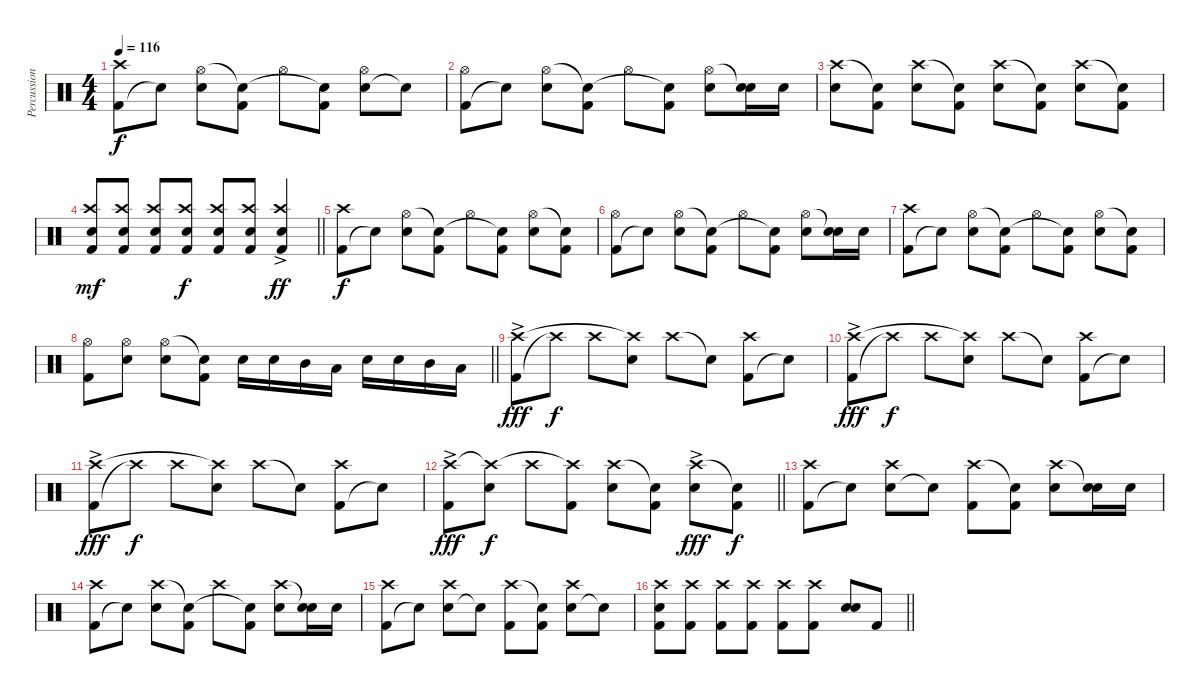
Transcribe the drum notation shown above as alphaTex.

\track ("Percussion" "Percussion") {instrument percussion}
\staff {score}
\articulation defaults
\ts (4 4)
\tempo 116
\clef neutral
\ks c
("Kick (hit) 2" "Crash high (hit)").8{dy f} "Snare (hit)"{t}.8 ("Electric Snare (hit)" "Hi-Hat (open)").8 ("Kick (hit) 2" "Snare (hit)"{t}).8 "Hi-Hat (open)".8 ("Kick (hit) 2" "Snare (hit)"{t}).8 ("Electric Snare (hit)" "Hi-Hat (open)").8 "Snare (hit)"{t}.8 |
("Kick (hit) 2" "Hi-Hat (open)").8 "Snare (hit)"{t}.8 ("Electric Snare (hit)" "Hi-Hat (open)").8 ("Kick (hit) 2" "Snare (hit)"{t}).8 "Hi-Hat (open)".8 ("Kick (hit) 2" "Snare (hit)"{t}).8 ("Electric Snare (hit)" "Hi-Hat (open)").8 ("Electric Snare (hit)" "Snare (hit)"{t}).16 "Electric Snare (hit)".16 |
("Electric Snare (hit)" "Crash high (hit)").8 ("Kick (hit) 2" "Snare (hit)"{t}).8 ("Electric Snare (hit)" "Crash high (hit)").8 ("Kick (hit) 2" "Snare (hit)"{t}).8 ("Electric Snare (hit)" "Crash high (hit)").8 ("Kick (hit) 2" "Snare (hit)"{t}).8 ("Electric Snare (hit)" "Crash high (hit)").8 ("Kick (hit) 2" "Snare (hit)"{t}).8 |
\barLineRight lightlight
("Kick (hit) 2" "Electric Snare (hit)" "Crash high (hit)").8{dy mf} ("Kick (hit) 2" "Electric Snare (hit)" "Crash high (hit)").8 ("Kick (hit) 2" "Electric Snare (hit)" "Crash high (hit)").8 ("Kick (hit) 2" "Electric Snare (hit)" "Crash high (hit)").8{dy f} ("Kick (hit) 2" "Electric Snare (hit)" "Crash high (hit)").8 ("Kick (hit) 2" "Electric Snare (hit)" "Crash high (hit)").8 ("Kick (hit) 2"{ac} "Electric Snare (hit)"{ac} "Crash high (hit)").4{dy ff} |
("Kick (hit) 2" "Crash high (hit)").8{dy f} "Snare (hit)"{t}.8 ("Electric Snare (hit)" "Hi-Hat (open)").8 ("Kick (hit) 2" "Snare (hit)"{t}).8 "Hi-Hat (open)".8 ("Kick (hit) 2" "Snare (hit)"{t}).8 ("Electric Snare (hit)" "Hi-Hat (open)").8 ("Kick (hit) 2" "Snare (hit)"{t}).8 |
("Kick (hit) 2" "Hi-Hat (open)").8 "Snare (hit)"{t}.8 ("Electric Snare (hit)" "Hi-Hat (open)").8 ("Kick (hit) 2" "Snare (hit)"{t}).8 "Hi-Hat (open)".8 ("Kick (hit) 2" "Snare (hit)"{t}).8 ("Electric Snare (hit)" "Hi-Hat (open)").8 ("Electric Snare (hit)" "Snare (hit)"{t}).16 "Electric Snare (hit)".16 |
("Kick (hit) 2" "Crash high (hit)").8 "Snare (hit)"{t}.8 ("Electric Snare (hit)" "Hi-Hat (open)").8 ("Kick (hit) 2" "Snare (hit)"{t}).8 "Hi-Hat (open)".8 ("Kick (hit) 2" "Snare (hit)"{t}).8 ("Electric Snare (hit)" "Hi-Hat (open)").8 ("Kick (hit) 2" "Snare (hit)"{t}).8 |
\barLineRight lightlight
("Kick (hit) 2" "Hi-Hat (open)").8 ("Electric Snare (hit)" "Hi-Hat (open)").8 ("Electric Snare (hit)" "Hi-Hat (open)").8 ("Kick (hit) 2" "Snare (hit)"{t}).8 "Electric Snare (hit)".16 "Electric Snare (hit)".16 "Mid Tom (hit)".16 "Low Tom (hit)".16 "Electric Snare (hit)".16 "Electric Snare (hit)".16 "Mid Tom (hit)".16 "Low Tom (hit)".16 |
("Kick (hit) 2" "Crash high (hit)"{ac}).8{dy fff} "Crash high (hit)"{t}.8{dy f} "Crash high (hit)".8 ("Electric Snare (hit)" "Crash high (hit)"{t}).8 "Crash high (hit)".8 "Snare (hit)"{t}.8 ("Kick (hit) 2" "Crash high (hit)").8 "Snare (hit)"{t}.8 |
("Kick (hit) 2" "Crash high (hit)"{ac}).8{dy fff} "Crash high (hit)"{t}.8{dy f} "Crash high (hit)".8 ("Electric Snare (hit)" "Crash high (hit)"{t}).8 "Crash high (hit)".8 "Snare (hit)"{t}.8 ("Kick (hit) 2" "Crash high (hit)").8 "Snare (hit)"{t}.8 |
("Kick (hit) 2" "Crash high (hit)"{ac}).8{dy fff} "Crash high (hit)"{t}.8{dy f} "Crash high (hit)".8 ("Electric Snare (hit)" "Crash high (hit)"{t}).8 "Crash high (hit)".8 "Snare (hit)"{t}.8 ("Kick (hit) 2" "Crash high (hit)").8 "Snare (hit)"{t}.8 |
\barLineRight lightlight
("Kick (hit) 2" "Crash high (hit)"{ac}).8{dy fff} ("Electric Snare (hit)" "Crash high (hit)"{t}).8{dy f} "Crash high (hit)".8 ("Kick (hit) 2" "Crash high (hit)"{t}).8 ("Electric Snare (hit)" "Crash high (hit)").8 ("Kick (hit) 2" "Snare (hit)"{t}).8 ("Electric Snare (hit)" "Crash high (hit)"{ac}).8{dy fff} ("Kick (hit) 2" "Snare (hit)"{t}).8{dy f} |
("Kick (hit) 2" "Crash high (hit)").8 "Snare (hit)"{t}.8 ("Electric Snare (hit)" "Crash high (hit)").8 "Snare (hit)"{t}.8 ("Kick (hit) 2" "Crash high (hit)").8 ("Kick (hit) 2" "Snare (hit)"{t}).8 ("Electric Snare (hit)" "Crash high (hit)").8 ("Electric Snare (hit)" "Snare (hit)"{t}).16 "Electric Snare (hit)".16 |
("Kick (hit) 2" "Crash high (hit)").8 "Snare (hit)"{t}.8 ("Electric Snare (hit)" "Crash high (hit)").8 ("Kick (hit) 2" "Snare (hit)"{t}).8 "Crash high (hit)".8 ("Kick (hit) 2" "Snare (hit)"{t}).8 ("Electric Snare (hit)" "Crash high (hit)").8 ("Electric Snare (hit)" "Snare (hit)"{t}).16 "Electric Snare (hit)".16 |
("Kick (hit) 2" "Crash high (hit)").8 "Snare (hit)"{t}.8 ("Electric Snare (hit)" "Crash high (hit)").8 "Snare (hit)"{t}.8 ("Kick (hit) 2" "Crash high (hit)").8 ("Kick (hit) 2" "Snare (hit)"{t}).8 ("Electric Snare (hit)" "Crash high (hit)").8 "Snare (hit)"{t}.8 |
\barLineRight lightlight
("Kick (hit) 2" "Electric Snare (hit)" "Crash high (hit)").8 ("Kick (hit) 2" "Crash high (hit)").8 ("Kick (hit) 2" "Crash high (hit)").8 ("Kick (hit) 2" "Crash high (hit)").8 ("Kick (hit) 2" "Crash high (hit)").8 ("Kick (hit) 2" "Crash high (hit)").8 ("Electric Snare (hit)" "Electric Snare (hit)").8 "Kick (hit) 2".8
